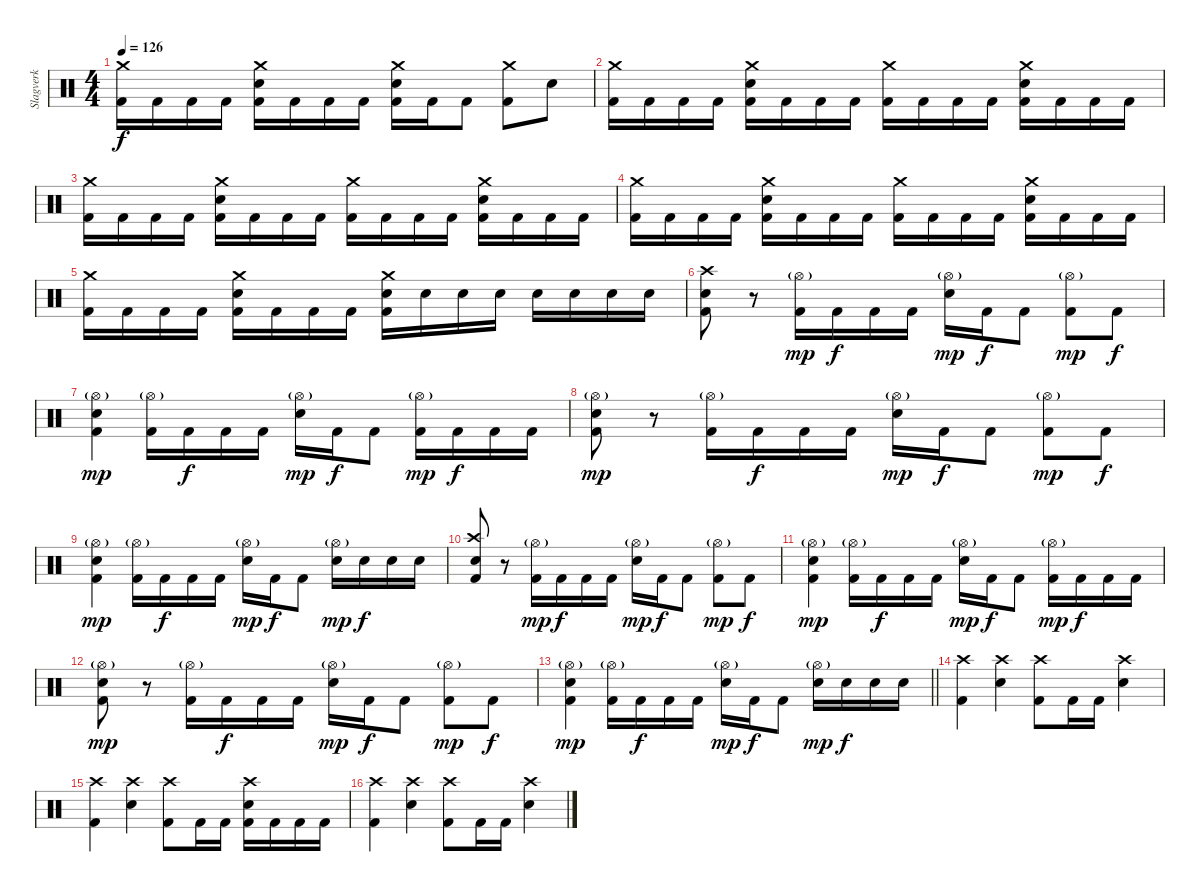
\track ("Slagverk" "Slagverk") {instrument percussion}
\staff {score}
\articulation defaults
\ts (4 4)
\tempo 126
\clef neutral
\ks c
("Crash medium (hit)" "Kick (hit) 2").16{dy f} "Kick (hit) 2".16 "Kick (hit) 2".16 "Kick (hit) 2".16 ("Electric Snare (hit)" "Kick (hit) 2" "Crash medium (hit)").16 "Kick (hit) 2".16 "Kick (hit) 2".16 "Kick (hit) 2".16 ("Electric Snare (hit)" "Kick (hit) 2" "Crash medium (hit)").16 "Kick (hit) 2".16 "Kick (hit) 2".8 ("Crash medium (hit)" "Kick (hit) 2").8 "Electric Snare (hit)".8 |
("Crash medium (hit)" "Kick (hit) 2").16 "Kick (hit) 2".16 "Kick (hit) 2".16 "Kick (hit) 2".16 ("Electric Snare (hit)" "Kick (hit) 2" "Crash medium (hit)").16 "Kick (hit) 2".16 "Kick (hit) 2".16 "Kick (hit) 2".16 ("Crash medium (hit)" "Kick (hit) 2").16 "Kick (hit) 2".16 "Kick (hit) 2".16 "Kick (hit) 2".16 ("Electric Snare (hit)" "Kick (hit) 2" "Crash medium (hit)").16 "Kick (hit) 2".16 "Kick (hit) 2".16 "Kick (hit) 2".16 |
("Crash medium (hit)" "Kick (hit) 2").16 "Kick (hit) 2".16 "Kick (hit) 2".16 "Kick (hit) 2".16 ("Electric Snare (hit)" "Kick (hit) 2" "Crash medium (hit)").16 "Kick (hit) 2".16 "Kick (hit) 2".16 "Kick (hit) 2".16 ("Crash medium (hit)" "Kick (hit) 2").16 "Kick (hit) 2".16 "Kick (hit) 2".16 "Kick (hit) 2".16 ("Electric Snare (hit)" "Kick (hit) 2" "Crash medium (hit)").16 "Kick (hit) 2".16 "Kick (hit) 2".16 "Kick (hit) 2".16 |
("Crash medium (hit)" "Kick (hit) 2").16 "Kick (hit) 2".16 "Kick (hit) 2".16 "Kick (hit) 2".16 ("Electric Snare (hit)" "Kick (hit) 2" "Crash medium (hit)").16 "Kick (hit) 2".16 "Kick (hit) 2".16 "Kick (hit) 2".16 ("Crash medium (hit)" "Kick (hit) 2").16 "Kick (hit) 2".16 "Kick (hit) 2".16 "Kick (hit) 2".16 ("Electric Snare (hit)" "Kick (hit) 2" "Crash medium (hit)").16 "Kick (hit) 2".16 "Kick (hit) 2".16 "Kick (hit) 2".16 |
("Crash medium (hit)" "Kick (hit) 2").16 "Kick (hit) 2".16 "Kick (hit) 2".16 "Kick (hit) 2".16 ("Electric Snare (hit)" "Kick (hit) 2" "Crash medium (hit)").16 "Kick (hit) 2".16 "Kick (hit) 2".16 "Kick (hit) 2".16 ("Electric Snare (hit)" "Kick (hit) 2" "Crash medium (hit)").16 "Electric Snare (hit)".16 "Electric Snare (hit)".16 "Electric Snare (hit)".16 "Electric Snare (hit)".16 "Electric Snare (hit)".16 "Electric Snare (hit)".16 "Electric Snare (hit)".16 |
("Crash high (hit)" "Electric Snare (hit)" "Kick (hit) 2").8 r.8 ("Kick (hit) 2" "Hi-Hat (open)"{g}).16{dy mp} "Kick (hit) 2".16{dy f} "Kick (hit) 2".16 "Kick (hit) 2".16 ("Hi-Hat (open)"{g} "Electric Snare (hit)").16{dy mp} "Kick (hit) 2".16{dy f} "Kick (hit) 2".8 ("Kick (hit) 2" "Hi-Hat (open)"{g}).8{dy mp} "Kick (hit) 2".8{dy f} |
("Hi-Hat (open)"{g} "Kick (hit) 2" "Electric Snare (hit)").4{dy mp} ("Kick (hit) 2" "Hi-Hat (open)"{g}).16 "Kick (hit) 2".16{dy f} "Kick (hit) 2".16 "Kick (hit) 2".16 ("Hi-Hat (open)"{g} "Electric Snare (hit)").16{dy mp} "Kick (hit) 2".16{dy f} "Kick (hit) 2".8 ("Kick (hit) 2" "Hi-Hat (open)"{g}).16{dy mp} "Kick (hit) 2".16{dy f} "Kick (hit) 2".16 "Kick (hit) 2".16 |
("Hi-Hat (open)"{g} "Kick (hit) 2" "Electric Snare (hit)").8{dy mp} r.8 ("Kick (hit) 2" "Hi-Hat (open)"{g}).16 "Kick (hit) 2".16{dy f} "Kick (hit) 2".16 "Kick (hit) 2".16 ("Hi-Hat (open)"{g} "Electric Snare (hit)").16{dy mp} "Kick (hit) 2".16{dy f} "Kick (hit) 2".8 ("Kick (hit) 2" "Hi-Hat (open)"{g}).8{dy mp} "Kick (hit) 2".8{dy f} |
("Hi-Hat (open)"{g} "Kick (hit) 2" "Electric Snare (hit)").4{dy mp} ("Kick (hit) 2" "Hi-Hat (open)"{g}).16 "Kick (hit) 2".16{dy f} "Kick (hit) 2".16 "Kick (hit) 2".16 ("Hi-Hat (open)"{g} "Electric Snare (hit)").16{dy mp} "Kick (hit) 2".16{dy f} "Kick (hit) 2".8 ("Hi-Hat (open)"{g} "Electric Snare (hit)").16{dy mp} "Electric Snare (hit)".16{dy f} "Electric Snare (hit)".16 "Electric Snare (hit)".16 |
("Kick (hit) 2" "Snare (hit) 2" "Crash high (hit)").8 r.8 ("Kick (hit) 2" "Hi-Hat (open)"{g}).16{dy mp} "Kick (hit) 2".16{dy f} "Kick (hit) 2".16 "Kick (hit) 2".16 ("Hi-Hat (open)"{g} "Electric Snare (hit)").16{dy mp} "Kick (hit) 2".16{dy f} "Kick (hit) 2".8 ("Kick (hit) 2" "Hi-Hat (open)"{g}).8{dy mp} "Kick (hit) 2".8{dy f} |
("Hi-Hat (open)"{g} "Kick (hit) 2" "Electric Snare (hit)").4{dy mp} ("Kick (hit) 2" "Hi-Hat (open)"{g}).16 "Kick (hit) 2".16{dy f} "Kick (hit) 2".16 "Kick (hit) 2".16 ("Hi-Hat (open)"{g} "Electric Snare (hit)").16{dy mp} "Kick (hit) 2".16{dy f} "Kick (hit) 2".8 ("Kick (hit) 2" "Hi-Hat (open)"{g}).16{dy mp} "Kick (hit) 2".16{dy f} "Kick (hit) 2".16 "Kick (hit) 2".16 |
("Hi-Hat (open)"{g} "Kick (hit) 2" "Electric Snare (hit)").8{dy mp} r.8 ("Kick (hit) 2" "Hi-Hat (open)"{g}).16 "Kick (hit) 2".16{dy f} "Kick (hit) 2".16 "Kick (hit) 2".16 ("Hi-Hat (open)"{g} "Electric Snare (hit)").16{dy mp} "Kick (hit) 2".16{dy f} "Kick (hit) 2".8 ("Kick (hit) 2" "Hi-Hat (open)"{g}).8{dy mp} "Kick (hit) 2".8{dy f} |
\barLineRight lightlight
("Hi-Hat (open)"{g} "Kick (hit) 2" "Electric Snare (hit)").4{dy mp} ("Kick (hit) 2" "Hi-Hat (open)"{g}).16 "Kick (hit) 2".16{dy f} "Kick (hit) 2".16 "Kick (hit) 2".16 ("Hi-Hat (open)"{g} "Electric Snare (hit)").16{dy mp} "Kick (hit) 2".16{dy f} "Kick (hit) 2".8 ("Hi-Hat (open)"{g} "Electric Snare (hit)").16{dy mp} "Electric Snare (hit)".16{dy f} "Electric Snare (hit)".16 "Electric Snare (hit)".16 |
("Kick (hit) 2" "Crash high (hit)").4 ("Crash high (hit)" "Electric Snare (hit)").4 ("Crash high (hit)" "Kick (hit) 2").8 "Kick (hit) 2".16 "Kick (hit) 2".16 ("Crash high (hit)" "Electric Snare (hit)").4 |
("Kick (hit) 2" "Crash high (hit)").4 ("Crash high (hit)" "Electric Snare (hit)").4 ("Crash high (hit)" "Kick (hit) 2").8 "Kick (hit) 2".16 "Kick (hit) 2".16 ("Kick (hit) 2" "Crash high (hit)" "Electric Snare (hit)").16 "Kick (hit) 2".16 "Kick (hit) 2".16 "Kick (hit) 2".16 |
("Kick (hit) 2" "Crash high (hit)").4 ("Crash high (hit)" "Electric Snare (hit)").4 ("Crash high (hit)" "Kick (hit) 2").8 "Kick (hit) 2".16 "Kick (hit) 2".16 ("Crash high (hit)" "Electric Snare (hit)").4
